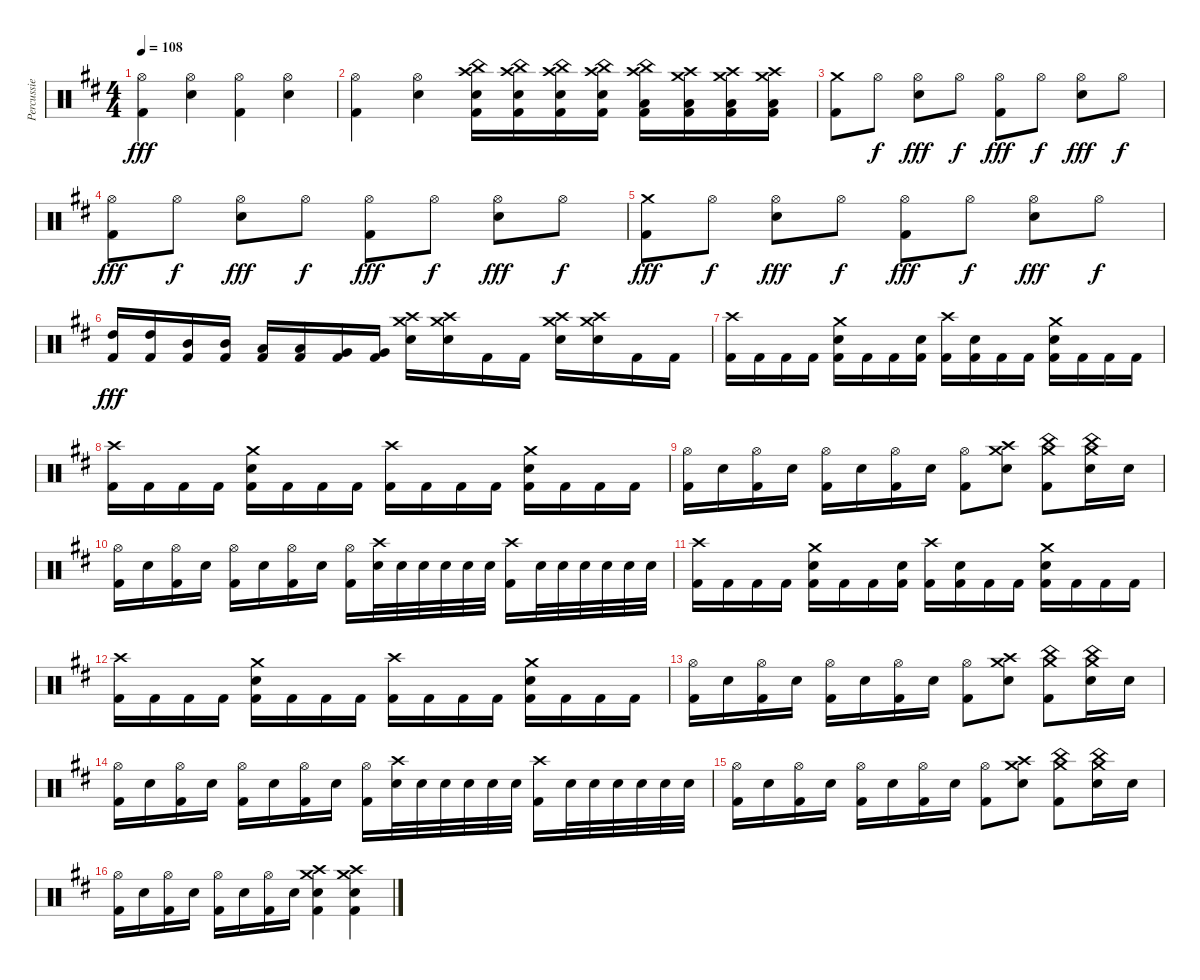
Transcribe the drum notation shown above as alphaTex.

\track ("Percussie" "Percussie") {instrument percussion}
\staff {score}
\articulation defaults
\ts (4 4)
\tempo 108
\clef neutral
\ks d
("Hi-Hat (open)" "Kick (hit) 2").4{dy fff} ("Hi-Hat (open)" "Snare (hit) 2").4 ("Hi-Hat (open)" "Kick (hit) 2").4 ("Hi-Hat (open)" "Snare (hit) 2").4 |
("Hi-Hat (open)" "Kick (hit) 2").4 ("Hi-Hat (open)" "Snare (hit) 2").4 ("Crash high (hit)" "China (hit)" "Snare (hit) 2" "Kick (hit) 2").16 ("Crash high (hit)" "China (hit)" "Snare (hit) 2" "Kick (hit) 2").16 ("Crash high (hit)" "China (hit)" "Snare (hit) 2" "Kick (hit) 2").16 ("Crash high (hit)" "China (hit)" "Snare (hit) 2" "Kick (hit) 2").16 ("Crash high (hit)" "China (hit)" "Low Tom (hit)" "Kick (hit) 2").16 ("Crash high (hit)" "Crash medium (hit)" "Low Tom (hit)" "Kick (hit) 2").16 ("Crash high (hit)" "Crash medium (hit)" "Low Tom (hit)" "Kick (hit) 2").16 ("Crash high (hit)" "Crash medium (hit)" "Low Tom (hit)" "Kick (hit) 2").16 |
("Crash medium (hit)" "Kick (hit) 2").8 "Hi-Hat (open)".8{dy f} ("Hi-Hat (open)" "Snare (hit) 2").8{dy fff} "Hi-Hat (open)".8{dy f} ("Hi-Hat (open)" "Kick (hit) 2").8{dy fff} "Hi-Hat (open)".8{dy f} ("Hi-Hat (open)" "Snare (hit) 2").8{dy fff} "Hi-Hat (open)".8{dy f} |
("Hi-Hat (open)" "Kick (hit) 2").8{dy fff} "Hi-Hat (open)".8{dy f} ("Hi-Hat (open)" "Snare (hit) 2").8{dy fff} "Hi-Hat (open)".8{dy f} ("Hi-Hat (open)" "Kick (hit) 2").8{dy fff} "Hi-Hat (open)".8{dy f} ("Hi-Hat (open)" "Snare (hit) 2").8{dy fff} "Hi-Hat (open)".8{dy f} |
("Crash medium (hit)" "Kick (hit) 2").8{dy fff} "Hi-Hat (open)".8{dy f} ("Hi-Hat (open)" "Snare (hit) 2").8{dy fff} "Hi-Hat (open)".8{dy f} ("Hi-Hat (open)" "Kick (hit) 2").8{dy fff} "Hi-Hat (open)".8{dy f} ("Hi-Hat (open)" "Snare (hit) 2").8{dy fff} "Hi-Hat (open)".8{dy f} |
("High Tom (hit)" "Kick (hit) 2").16{dy fff} ("High Tom (hit)" "Kick (hit) 2").16 ("Mid Tom (hit)" "Kick (hit) 2").16 ("Mid Tom (hit)" "Kick (hit) 2").16 ("Low Tom (hit)" "Kick (hit) 2").16 ("Low Tom (hit)" "Kick (hit) 2").16 ("Very Low Tom (hit)" "Kick (hit) 2").16 ("Very Low Tom (hit)" "Kick (hit) 2").16 ("Crash high (hit)" "Crash medium (hit)" "Snare (hit) 2").16 ("Crash high (hit)" "Crash medium (hit)" "Snare (hit) 2").16 "Kick (hit) 2".16 "Kick (hit) 2".16 ("Crash high (hit)" "Crash medium (hit)" "Snare (hit) 2").16 ("Crash high (hit)" "Crash medium (hit)" "Snare (hit) 2").16 "Kick (hit) 2".16 "Kick (hit) 2".16 |
("Crash high (hit)" "Kick (hit) 2").16 "Kick (hit) 2".16 "Kick (hit) 2".16 "Kick (hit) 2".16 ("Crash medium (hit)" "Snare (hit) 2" "Kick (hit) 2").16 "Kick (hit) 2".16 "Kick (hit) 2".16 ("Snare (hit) 2" "Kick (hit) 2").16 ("Crash high (hit)" "Kick (hit) 2").16 ("Snare (hit) 2" "Kick (hit) 2").16 "Kick (hit) 2".16 "Kick (hit) 2".16 ("Crash medium (hit)" "Snare (hit) 2" "Kick (hit) 2").16 "Kick (hit) 2".16 "Kick (hit) 2".16 "Kick (hit) 2".16 |
("Crash high (hit)" "Kick (hit) 2").16 "Kick (hit) 2".16 "Kick (hit) 2".16 "Kick (hit) 2".16 ("Crash medium (hit)" "Snare (hit) 2" "Kick (hit) 2").16 "Kick (hit) 2".16 "Kick (hit) 2".16 "Kick (hit) 2".16 ("Crash high (hit)" "Kick (hit) 2").16 "Kick (hit) 2".16 "Kick (hit) 2".16 "Kick (hit) 2".16 ("Crash medium (hit)" "Snare (hit) 2" "Kick (hit) 2").16 "Kick (hit) 2".16 "Kick (hit) 2".16 "Kick (hit) 2".16 |
("Hi-Hat (open)" "Kick (hit) 2").16 "Snare (hit) 2".16 ("Hi-Hat (open)" "Kick (hit) 2").16 "Snare (hit) 2".16 ("Hi-Hat (open)" "Kick (hit) 2").16 "Snare (hit) 2".16 ("Hi-Hat (open)" "Kick (hit) 2").16 "Snare (hit) 2".16 ("Hi-Hat (open)" "Kick (hit) 2").8 ("Crash high (hit)" "Crash medium (hit)" "Snare (hit) 2").8 ("China (hit)" "Crash medium (hit)" "Kick (hit) 2").8 ("China (hit)" "Crash medium (hit)" "Snare (hit) 2").16 "Snare (hit) 2".16 |
("Hi-Hat (open)" "Kick (hit) 2").16 "Snare (hit) 2".16 ("Hi-Hat (open)" "Kick (hit) 2").16 "Snare (hit) 2".16 ("Hi-Hat (open)" "Kick (hit) 2").16 "Snare (hit) 2".16 ("Hi-Hat (open)" "Kick (hit) 2").16 "Snare (hit) 2".16 ("Hi-Hat (open)" "Kick (hit) 2").16 ("Crash high (hit)" "Snare (hit) 2").32 "Snare (hit) 2".32 "Snare (hit) 2".32 "Snare (hit) 2".32 "Snare (hit) 2".32 "Snare (hit) 2".32 ("Crash high (hit)" "Kick (hit) 2").16 "Snare (hit) 2".32 "Snare (hit) 2".32 "Snare (hit) 2".32 "Snare (hit) 2".32 "Snare (hit) 2".32 "Snare (hit) 2".32 |
("Crash high (hit)" "Kick (hit) 2").16 "Kick (hit) 2".16 "Kick (hit) 2".16 "Kick (hit) 2".16 ("Crash medium (hit)" "Snare (hit) 2" "Kick (hit) 2").16 "Kick (hit) 2".16 "Kick (hit) 2".16 ("Snare (hit) 2" "Kick (hit) 2").16 ("Crash high (hit)" "Kick (hit) 2").16 ("Snare (hit) 2" "Kick (hit) 2").16 "Kick (hit) 2".16 "Kick (hit) 2".16 ("Crash medium (hit)" "Snare (hit) 2" "Kick (hit) 2").16 "Kick (hit) 2".16 "Kick (hit) 2".16 "Kick (hit) 2".16 |
("Crash high (hit)" "Kick (hit) 2").16 "Kick (hit) 2".16 "Kick (hit) 2".16 "Kick (hit) 2".16 ("Crash medium (hit)" "Snare (hit) 2" "Kick (hit) 2").16 "Kick (hit) 2".16 "Kick (hit) 2".16 "Kick (hit) 2".16 ("Crash high (hit)" "Kick (hit) 2").16 "Kick (hit) 2".16 "Kick (hit) 2".16 "Kick (hit) 2".16 ("Crash medium (hit)" "Snare (hit) 2" "Kick (hit) 2").16 "Kick (hit) 2".16 "Kick (hit) 2".16 "Kick (hit) 2".16 |
("Hi-Hat (open)" "Kick (hit) 2").16 "Snare (hit) 2".16 ("Hi-Hat (open)" "Kick (hit) 2").16 "Snare (hit) 2".16 ("Hi-Hat (open)" "Kick (hit) 2").16 "Snare (hit) 2".16 ("Hi-Hat (open)" "Kick (hit) 2").16 "Snare (hit) 2".16 ("Hi-Hat (open)" "Kick (hit) 2").8 ("Crash high (hit)" "Crash medium (hit)" "Snare (hit) 2").8 ("China (hit)" "Crash medium (hit)" "Kick (hit) 2").8 ("China (hit)" "Crash medium (hit)" "Snare (hit) 2").16 "Snare (hit) 2".16 |
("Hi-Hat (open)" "Kick (hit) 2").16 "Snare (hit) 2".16 ("Hi-Hat (open)" "Kick (hit) 2").16 "Snare (hit) 2".16 ("Hi-Hat (open)" "Kick (hit) 2").16 "Snare (hit) 2".16 ("Hi-Hat (open)" "Kick (hit) 2").16 "Snare (hit) 2".16 ("Hi-Hat (open)" "Kick (hit) 2").16 ("Crash high (hit)" "Snare (hit) 2").32 "Snare (hit) 2".32 "Snare (hit) 2".32 "Snare (hit) 2".32 "Snare (hit) 2".32 "Snare (hit) 2".32 ("Crash high (hit)" "Kick (hit) 2").16 "Snare (hit) 2".32 "Snare (hit) 2".32 "Snare (hit) 2".32 "Snare (hit) 2".32 "Snare (hit) 2".32 "Snare (hit) 2".32 |
("Hi-Hat (open)" "Kick (hit) 2").16 "Snare (hit) 2".16 ("Hi-Hat (open)" "Kick (hit) 2").16 "Snare (hit) 2".16 ("Hi-Hat (open)" "Kick (hit) 2").16 "Snare (hit) 2".16 ("Hi-Hat (open)" "Kick (hit) 2").16 "Snare (hit) 2".16 ("Hi-Hat (open)" "Kick (hit) 2").8 ("Crash high (hit)" "Crash medium (hit)" "Snare (hit) 2").8 ("China (hit)" "Crash medium (hit)" "Kick (hit) 2").8 ("China (hit)" "Crash medium (hit)" "Snare (hit) 2").16 "Snare (hit) 2".16 |
("Hi-Hat (open)" "Kick (hit) 2").16 "Snare (hit) 2".16 ("Hi-Hat (open)" "Kick (hit) 2").16 "Snare (hit) 2".16 ("Hi-Hat (open)" "Kick (hit) 2").16 "Snare (hit) 2".16 ("Hi-Hat (open)" "Kick (hit) 2").16 "Snare (hit) 2".16 ("Crash high (hit)" "Crash medium (hit)" "Snare (hit) 2" "Kick (hit) 2").4 ("Crash high (hit)" "Crash medium (hit)" "Snare (hit) 2" "Kick (hit) 2").4
